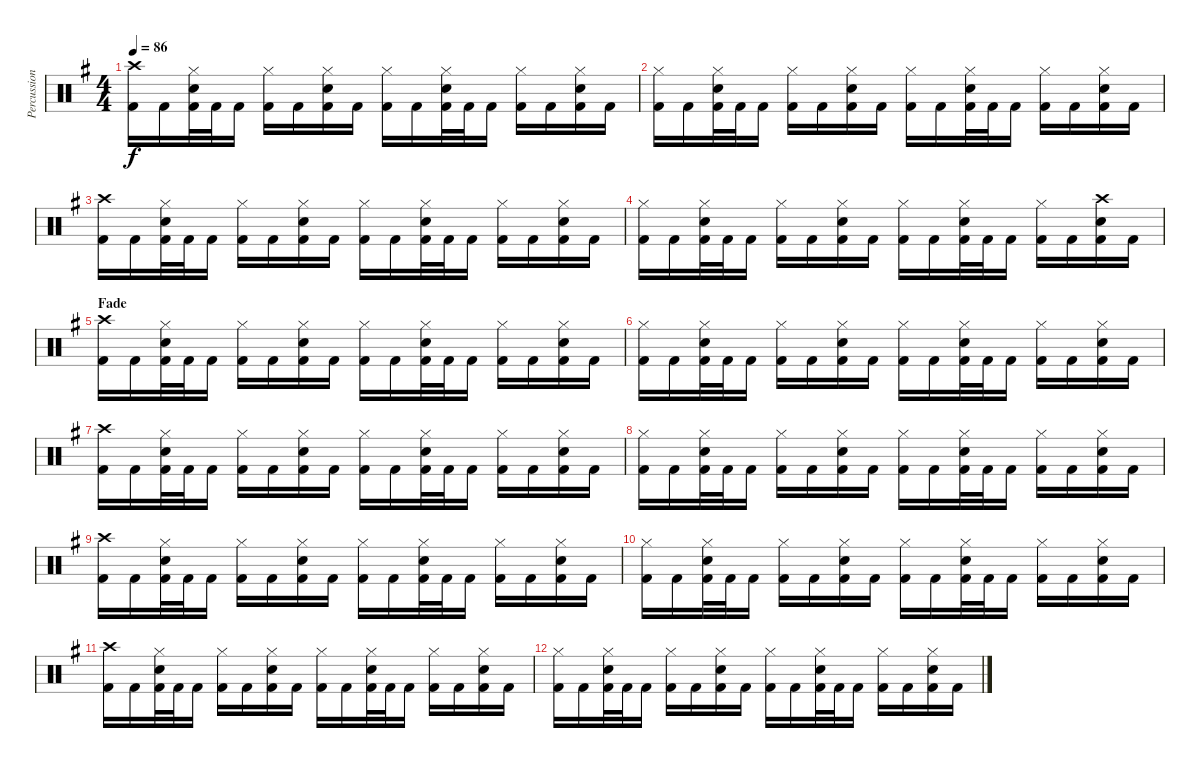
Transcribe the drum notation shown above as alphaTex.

\track ("Percussions" "Percussion") {instrument percussion}
\staff {score}
\articulation defaults
\ts (4 4)
\tempo 86
\clef neutral
\ks eminor
("Crash high (hit)" "Kick (hit) 2").16{dy f} "Kick (hit) 2".16 ("Hi-Hat (closed)" "Snare (hit) 2" "Kick (hit) 2").32 "Kick (hit) 2".32 "Kick (hit) 2".16 ("Hi-Hat (closed)" "Kick (hit) 2").16 "Kick (hit) 2".16 ("Hi-Hat (closed)" "Snare (hit) 2" "Kick (hit) 2").16 "Kick (hit) 2".16 ("Hi-Hat (closed)" "Kick (hit) 2").16 "Kick (hit) 2".16 ("Hi-Hat (closed)" "Snare (hit) 2" "Kick (hit) 2").32 "Kick (hit) 2".32 "Kick (hit) 2".16 ("Hi-Hat (closed)" "Kick (hit) 2").16 "Kick (hit) 2".16 ("Hi-Hat (closed)" "Snare (hit) 2" "Kick (hit) 2").16 "Kick (hit) 2".16 |
("Hi-Hat (closed)" "Kick (hit) 2").16 "Kick (hit) 2".16 ("Hi-Hat (closed)" "Snare (hit) 2" "Kick (hit) 2").32 "Kick (hit) 2".32 "Kick (hit) 2".16 ("Hi-Hat (closed)" "Kick (hit) 2").16 "Kick (hit) 2".16 ("Hi-Hat (closed)" "Snare (hit) 2" "Kick (hit) 2").16 "Kick (hit) 2".16 ("Hi-Hat (closed)" "Kick (hit) 2").16 "Kick (hit) 2".16 ("Hi-Hat (closed)" "Snare (hit) 2" "Kick (hit) 2").32 "Kick (hit) 2".32 "Kick (hit) 2".16 ("Hi-Hat (closed)" "Kick (hit) 2").16 "Kick (hit) 2".16 ("Hi-Hat (closed)" "Snare (hit) 2" "Kick (hit) 2").16 "Kick (hit) 2".16 |
("Crash high (hit)" "Kick (hit) 2").16 "Kick (hit) 2".16 ("Hi-Hat (closed)" "Snare (hit) 2" "Kick (hit) 2").32 "Kick (hit) 2".32 "Kick (hit) 2".16 ("Hi-Hat (closed)" "Kick (hit) 2").16 "Kick (hit) 2".16 ("Hi-Hat (closed)" "Snare (hit) 2" "Kick (hit) 2").16 "Kick (hit) 2".16 ("Hi-Hat (closed)" "Kick (hit) 2").16 "Kick (hit) 2".16 ("Hi-Hat (closed)" "Snare (hit) 2" "Kick (hit) 2").32 "Kick (hit) 2".32 "Kick (hit) 2".16 ("Hi-Hat (closed)" "Kick (hit) 2").16 "Kick (hit) 2".16 ("Hi-Hat (closed)" "Snare (hit) 2" "Kick (hit) 2").16 "Kick (hit) 2".16 |
("Hi-Hat (closed)" "Kick (hit) 2").16 "Kick (hit) 2".16 ("Hi-Hat (closed)" "Snare (hit) 2" "Kick (hit) 2").32 "Kick (hit) 2".32 "Kick (hit) 2".16 ("Hi-Hat (closed)" "Kick (hit) 2").16 "Kick (hit) 2".16 ("Hi-Hat (closed)" "Snare (hit) 2" "Kick (hit) 2").16 "Kick (hit) 2".16 ("Hi-Hat (closed)" "Kick (hit) 2").16 "Kick (hit) 2".16 ("Hi-Hat (closed)" "Snare (hit) 2" "Kick (hit) 2").32 "Kick (hit) 2".32 "Kick (hit) 2".16 ("Hi-Hat (closed)" "Kick (hit) 2").16 "Kick (hit) 2".16 ("Crash high (hit)" "Snare (hit) 2" "Kick (hit) 2").16 "Kick (hit) 2".16 |
\section ("" "Fade")
("Crash high (hit)" "Kick (hit) 2").16 "Kick (hit) 2".16 ("Hi-Hat (closed)" "Snare (hit) 2" "Kick (hit) 2").32 "Kick (hit) 2".32 "Kick (hit) 2".16 ("Hi-Hat (closed)" "Kick (hit) 2").16 "Kick (hit) 2".16 ("Hi-Hat (closed)" "Snare (hit) 2" "Kick (hit) 2").16 "Kick (hit) 2".16 ("Hi-Hat (closed)" "Kick (hit) 2").16 "Kick (hit) 2".16 ("Hi-Hat (closed)" "Snare (hit) 2" "Kick (hit) 2").32 "Kick (hit) 2".32 "Kick (hit) 2".16 ("Hi-Hat (closed)" "Kick (hit) 2").16 "Kick (hit) 2".16 ("Hi-Hat (closed)" "Snare (hit) 2" "Kick (hit) 2").16 "Kick (hit) 2".16 |
("Hi-Hat (closed)" "Kick (hit) 2").16 "Kick (hit) 2".16 ("Hi-Hat (closed)" "Snare (hit) 2" "Kick (hit) 2").32 "Kick (hit) 2".32 "Kick (hit) 2".16 ("Hi-Hat (closed)" "Kick (hit) 2").16 "Kick (hit) 2".16 ("Hi-Hat (closed)" "Snare (hit) 2" "Kick (hit) 2").16 "Kick (hit) 2".16 ("Hi-Hat (closed)" "Kick (hit) 2").16 "Kick (hit) 2".16 ("Hi-Hat (closed)" "Snare (hit) 2" "Kick (hit) 2").32 "Kick (hit) 2".32 "Kick (hit) 2".16 ("Hi-Hat (closed)" "Kick (hit) 2").16 "Kick (hit) 2".16 ("Hi-Hat (closed)" "Snare (hit) 2" "Kick (hit) 2").16 "Kick (hit) 2".16 |
("Crash high (hit)" "Kick (hit) 2").16 "Kick (hit) 2".16 ("Hi-Hat (closed)" "Snare (hit) 2" "Kick (hit) 2").32 "Kick (hit) 2".32 "Kick (hit) 2".16 ("Hi-Hat (closed)" "Kick (hit) 2").16 "Kick (hit) 2".16 ("Hi-Hat (closed)" "Snare (hit) 2" "Kick (hit) 2").16 "Kick (hit) 2".16 ("Hi-Hat (closed)" "Kick (hit) 2").16 "Kick (hit) 2".16 ("Hi-Hat (closed)" "Snare (hit) 2" "Kick (hit) 2").32 "Kick (hit) 2".32 "Kick (hit) 2".16 ("Hi-Hat (closed)" "Kick (hit) 2").16 "Kick (hit) 2".16 ("Hi-Hat (closed)" "Snare (hit) 2" "Kick (hit) 2").16 "Kick (hit) 2".16 |
("Hi-Hat (closed)" "Kick (hit) 2").16 "Kick (hit) 2".16 ("Hi-Hat (closed)" "Snare (hit) 2" "Kick (hit) 2").32 "Kick (hit) 2".32 "Kick (hit) 2".16 ("Hi-Hat (closed)" "Kick (hit) 2").16 "Kick (hit) 2".16 ("Hi-Hat (closed)" "Snare (hit) 2" "Kick (hit) 2").16 "Kick (hit) 2".16 ("Hi-Hat (closed)" "Kick (hit) 2").16 "Kick (hit) 2".16 ("Hi-Hat (closed)" "Snare (hit) 2" "Kick (hit) 2").32 "Kick (hit) 2".32 "Kick (hit) 2".16 ("Hi-Hat (closed)" "Kick (hit) 2").16 "Kick (hit) 2".16 ("Hi-Hat (closed)" "Snare (hit) 2" "Kick (hit) 2").16 "Kick (hit) 2".16 |
("Crash high (hit)" "Kick (hit) 2").16 "Kick (hit) 2".16 ("Hi-Hat (closed)" "Snare (hit) 2" "Kick (hit) 2").32 "Kick (hit) 2".32 "Kick (hit) 2".16 ("Hi-Hat (closed)" "Kick (hit) 2").16 "Kick (hit) 2".16 ("Hi-Hat (closed)" "Snare (hit) 2" "Kick (hit) 2").16 "Kick (hit) 2".16 ("Hi-Hat (closed)" "Kick (hit) 2").16 "Kick (hit) 2".16 ("Hi-Hat (closed)" "Snare (hit) 2" "Kick (hit) 2").32 "Kick (hit) 2".32 "Kick (hit) 2".16 ("Hi-Hat (closed)" "Kick (hit) 2").16 "Kick (hit) 2".16 ("Hi-Hat (closed)" "Snare (hit) 2" "Kick (hit) 2").16 "Kick (hit) 2".16 |
("Hi-Hat (closed)" "Kick (hit) 2").16 "Kick (hit) 2".16 ("Hi-Hat (closed)" "Snare (hit) 2" "Kick (hit) 2").32 "Kick (hit) 2".32 "Kick (hit) 2".16 ("Hi-Hat (closed)" "Kick (hit) 2").16 "Kick (hit) 2".16 ("Hi-Hat (closed)" "Snare (hit) 2" "Kick (hit) 2").16 "Kick (hit) 2".16 ("Hi-Hat (closed)" "Kick (hit) 2").16 "Kick (hit) 2".16 ("Hi-Hat (closed)" "Snare (hit) 2" "Kick (hit) 2").32 "Kick (hit) 2".32 "Kick (hit) 2".16 ("Hi-Hat (closed)" "Kick (hit) 2").16 "Kick (hit) 2".16 ("Hi-Hat (closed)" "Snare (hit) 2" "Kick (hit) 2").16 "Kick (hit) 2".16 |
("Crash high (hit)" "Kick (hit) 2").16 "Kick (hit) 2".16 ("Hi-Hat (closed)" "Snare (hit) 2" "Kick (hit) 2").32 "Kick (hit) 2".32 "Kick (hit) 2".16 ("Hi-Hat (closed)" "Kick (hit) 2").16 "Kick (hit) 2".16 ("Hi-Hat (closed)" "Snare (hit) 2" "Kick (hit) 2").16 "Kick (hit) 2".16 ("Hi-Hat (closed)" "Kick (hit) 2").16 "Kick (hit) 2".16 ("Hi-Hat (closed)" "Snare (hit) 2" "Kick (hit) 2").32 "Kick (hit) 2".32 "Kick (hit) 2".16 ("Hi-Hat (closed)" "Kick (hit) 2").16 "Kick (hit) 2".16 ("Hi-Hat (closed)" "Snare (hit) 2" "Kick (hit) 2").16 "Kick (hit) 2".16 |
("Hi-Hat (closed)" "Kick (hit) 2").16 "Kick (hit) 2".16 ("Hi-Hat (closed)" "Snare (hit) 2" "Kick (hit) 2").32 "Kick (hit) 2".32 "Kick (hit) 2".16 ("Hi-Hat (closed)" "Kick (hit) 2").16 "Kick (hit) 2".16 ("Hi-Hat (closed)" "Snare (hit) 2" "Kick (hit) 2").16 "Kick (hit) 2".16 ("Hi-Hat (closed)" "Kick (hit) 2").16 "Kick (hit) 2".16 ("Hi-Hat (closed)" "Snare (hit) 2" "Kick (hit) 2").32 "Kick (hit) 2".32 "Kick (hit) 2".16 ("Hi-Hat (closed)" "Kick (hit) 2").16 "Kick (hit) 2".16 ("Hi-Hat (closed)" "Snare (hit) 2" "Kick (hit) 2").16 "Kick (hit) 2".16
